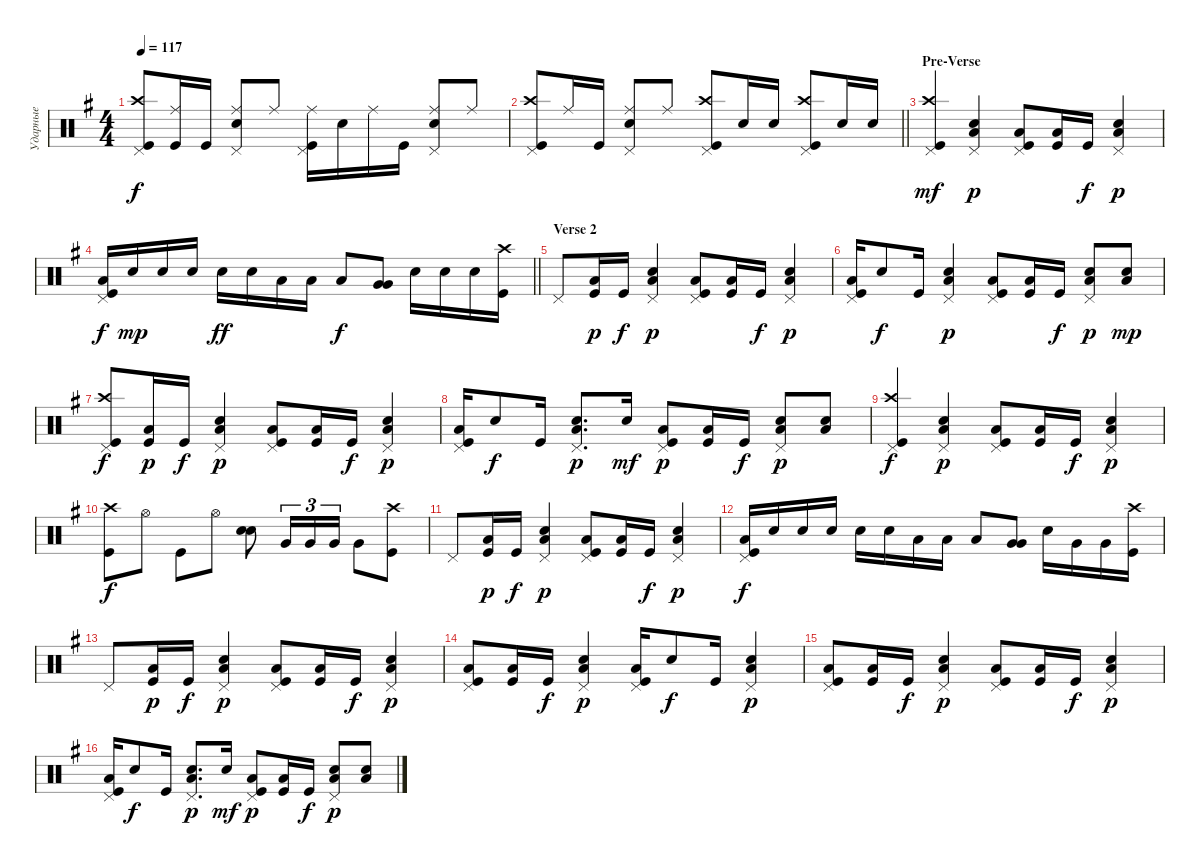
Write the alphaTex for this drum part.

\track ("Ударные" "Ударные") {instrument percussion}
\staff {score}
\articulation defaults
\ts (4 4)
\tempo 117
\clef neutral
\ks eminor
("Kick (hit)" "Crash high (hit)" "Pedal Hi-Hat (hit)").8{dy f} ("Ride (middle)" "Kick (hit)").16 "Kick (hit)".16 ("Ride (middle)" "Snare (hit) 2" "Pedal Hi-Hat (hit)").8 "Ride (middle)".8 ("Ride (middle)" "Kick (hit)" "Pedal Hi-Hat (hit)").16 "Snare (hit) 2".16 "Ride (middle)".16 "Kick (hit)".16 ("Ride (middle)" "Snare (hit) 2" "Pedal Hi-Hat (hit)").8 "Ride (middle)".8 |
\barLineRight lightlight
("Kick (hit)" "Crash high (hit)" "Pedal Hi-Hat (hit)").8 "Ride (middle)".16 "Kick (hit)".16 ("Ride (middle)" "Snare (hit) 2" "Pedal Hi-Hat (hit)").8 "Ride (middle)".8 ("Crash high (hit)" "Kick (hit)" "Pedal Hi-Hat (hit)").8 "Snare (hit) 2".16 "Snare (hit) 2".16 ("Kick (hit)" "Crash high (hit)" "Pedal Hi-Hat (hit)").8 "Snare (hit) 2".16 "Snare (hit) 2".16 |
\section ("" "Pre-Verse")
("Kick (hit)" "Crash high (hit)" "Pedal Hi-Hat (hit)").4{dy mf} ("Snare (hit) 2" "Pedal Hi-Hat (hit)" "Low Floor Tom (hit)").4{dy p} ("Kick (hit)" "Pedal Hi-Hat (hit)" "Low Floor Tom (hit)").8 ("Kick (hit)" "Low Floor Tom (hit)").16 "Kick (hit)".16{dy f} ("Snare (hit) 2" "Pedal Hi-Hat (hit)" "Low Floor Tom (hit)").4{dy p} |
\barLineRight lightlight
("Kick (hit)" "Pedal Hi-Hat (hit)" "Low Floor Tom (hit)").16{dy f} "Snare (hit) 2".16{dy mp} "Snare (hit) 2".16 "Snare (hit) 2".16 "Snare (hit) 2".16{dy ff} "Snare (hit) 2".16 "Low Tom (hit)".16 "Low Tom (hit)".16 "Low Tom (hit)".8{dy f} ("Very Low Tom (hit)" "Very Low Tom (hit)").8{bd 240} "Snare (hit) 2".16 "Snare (hit) 2".16 "Snare (hit) 2".16 ("Kick (hit)" "Crash high (hit)").16 |
\section ("" "Verse 2")
"Pedal Hi-Hat (hit)".8 ("Low Floor Tom (hit)" "Kick (hit)").16{dy p} "Kick (hit)".16{dy f} ("Snare (hit) 2" "Pedal Hi-Hat (hit)" "Low Floor Tom (hit)").4{dy p} ("Kick (hit)" "Low Floor Tom (hit)" "Pedal Hi-Hat (hit)").8 ("Kick (hit)" "Low Floor Tom (hit)").16 "Kick (hit)".16{dy f} ("Snare (hit) 2" "Pedal Hi-Hat (hit)" "Low Floor Tom (hit)").4{dy p} |
("Kick (hit)" "Pedal Hi-Hat (hit)" "Low Floor Tom (hit)").16 "Snare (hit) 2".8{dy f} "Kick (hit)".16 ("Snare (hit) 2" "Pedal Hi-Hat (hit)" "Low Floor Tom (hit)").4{dy p} ("Kick (hit)" "Pedal Hi-Hat (hit)" "Low Floor Tom (hit)").8 ("Kick (hit)" "Low Floor Tom (hit)").16 "Kick (hit)".16{dy f} ("Snare (hit) 2" "Pedal Hi-Hat (hit)" "Low Floor Tom (hit)").8{dy p} ("Snare (hit) 2" "Low Floor Tom (hit)").8{dy mp} |
("Pedal Hi-Hat (hit)" "Kick (hit)" "Crash high (hit)").8{dy f} ("Low Floor Tom (hit)" "Kick (hit)").16{dy p} "Kick (hit)".16{dy f} ("Snare (hit) 2" "Pedal Hi-Hat (hit)" "Low Floor Tom (hit)").4{dy p} ("Kick (hit)" "Low Floor Tom (hit)" "Pedal Hi-Hat (hit)").8 ("Kick (hit)" "Low Floor Tom (hit)").16 "Kick (hit)".16{dy f} ("Snare (hit) 2" "Pedal Hi-Hat (hit)" "Low Floor Tom (hit)").4{dy p} |
("Kick (hit)" "Pedal Hi-Hat (hit)" "Low Floor Tom (hit)").16 "Snare (hit) 2".8{dy f} "Kick (hit)".16 ("Snare (hit) 2" "Pedal Hi-Hat (hit)" "Low Floor Tom (hit)").8{d dy p} "Snare (hit) 2".16{dy mf} ("Kick (hit)" "Pedal Hi-Hat (hit)" "Low Floor Tom (hit)").8{dy p} ("Kick (hit)" "Low Floor Tom (hit)").16 "Kick (hit)".16{dy f} ("Snare (hit) 2" "Pedal Hi-Hat (hit)" "Low Floor Tom (hit)").8{dy p} ("Snare (hit) 2" "Low Floor Tom (hit)").8 |
("Kick (hit)" "Crash high (hit)" "Pedal Hi-Hat (hit)").4{dy f} ("Snare (hit) 2" "Pedal Hi-Hat (hit)" "Low Floor Tom (hit)").4{dy p} ("Kick (hit)" "Low Floor Tom (hit)" "Pedal Hi-Hat (hit)").8 ("Kick (hit)" "Low Floor Tom (hit)").16 "Kick (hit)".16{dy f} ("Snare (hit) 2" "Pedal Hi-Hat (hit)" "Low Floor Tom (hit)").4{dy p} |
("Kick (hit)" "Crash high (hit)").8{dy f} "Hi-Hat (open)".8 "Kick (hit)".8 "Hi-Hat (open)".8 ("Snare (hit) 2" "Snare (hit) 2").8{bd 240} "Very Low Tom (hit)".16{tu (3 2)} "Very Low Tom (hit)".16{tu (3 2)} "Very Low Tom (hit)".16{tu (3 2)} "Very Low Tom (hit)".8 ("Kick (hit)" "Crash high (hit)").8 |
"Pedal Hi-Hat (hit)".8 ("Low Floor Tom (hit)" "Kick (hit)").16{dy p} "Kick (hit)".16{dy f} ("Snare (hit) 2" "Pedal Hi-Hat (hit)" "Low Floor Tom (hit)").4{dy p} ("Kick (hit)" "Low Floor Tom (hit)" "Pedal Hi-Hat (hit)").8 ("Kick (hit)" "Low Floor Tom (hit)").16 "Kick (hit)".16{dy f} ("Snare (hit) 2" "Pedal Hi-Hat (hit)" "Low Floor Tom (hit)").4{dy p} |
("Kick (hit)" "Low Floor Tom (hit)" "Pedal Hi-Hat (hit)").16{dy f} "Snare (hit) 2".16 "Snare (hit) 2".16 "Snare (hit) 2".16 "Snare (hit) 2".16 "Snare (hit) 2".16 "Low Tom (hit)".16 "Low Tom (hit)".16 "Low Tom (hit)".8 ("Very Low Tom (hit)" "Very Low Tom (hit)").8{bd 240} "Snare (hit) 2".16 "Very Low Tom (hit)".16 "Very Low Tom (hit)".16 ("Kick (hit)" "Crash high (hit)").16 |
"Pedal Hi-Hat (hit)".8 ("Low Floor Tom (hit)" "Kick (hit)").16{dy p} "Kick (hit)".16{dy f} ("Snare (hit) 2" "Pedal Hi-Hat (hit)" "Low Floor Tom (hit)").4{dy p} ("Kick (hit)" "Low Floor Tom (hit)" "Pedal Hi-Hat (hit)").8 ("Kick (hit)" "Low Floor Tom (hit)").16 "Kick (hit)".16{dy f} ("Snare (hit) 2" "Pedal Hi-Hat (hit)" "Low Floor Tom (hit)").4{dy p} |
("Kick (hit)" "Low Floor Tom (hit)" "Pedal Hi-Hat (hit)").8 ("Kick (hit)" "Low Floor Tom (hit)").16 "Kick (hit)".16{dy f} ("Snare (hit) 2" "Pedal Hi-Hat (hit)" "Low Floor Tom (hit)").4{dy p} ("Kick (hit)" "Pedal Hi-Hat (hit)" "Low Floor Tom (hit)").16 "Snare (hit) 2".8{dy f} "Kick (hit)".16 ("Snare (hit) 2" "Pedal Hi-Hat (hit)" "Low Floor Tom (hit)").4{dy p} |
("Pedal Hi-Hat (hit)" "Kick (hit)" "Low Floor Tom (hit)").8 ("Low Floor Tom (hit)" "Kick (hit)").16 "Kick (hit)".16{dy f} ("Snare (hit) 2" "Pedal Hi-Hat (hit)" "Low Floor Tom (hit)").4{dy p} ("Kick (hit)" "Low Floor Tom (hit)" "Pedal Hi-Hat (hit)").8 ("Kick (hit)" "Low Floor Tom (hit)").16 "Kick (hit)".16{dy f} ("Snare (hit) 2" "Pedal Hi-Hat (hit)" "Low Floor Tom (hit)").4{dy p} |
("Kick (hit)" "Pedal Hi-Hat (hit)" "Low Floor Tom (hit)").16 "Snare (hit) 2".8{dy f} "Kick (hit)".16 ("Snare (hit) 2" "Pedal Hi-Hat (hit)" "Low Floor Tom (hit)").8{d dy p} "Snare (hit) 2".16{dy mf} ("Kick (hit)" "Pedal Hi-Hat (hit)" "Low Floor Tom (hit)").8{dy p} ("Kick (hit)" "Low Floor Tom (hit)").16 "Kick (hit)".16{dy f} ("Snare (hit) 2" "Pedal Hi-Hat (hit)" "Low Floor Tom (hit)").8{dy p} ("Snare (hit) 2" "Low Floor Tom (hit)").8
